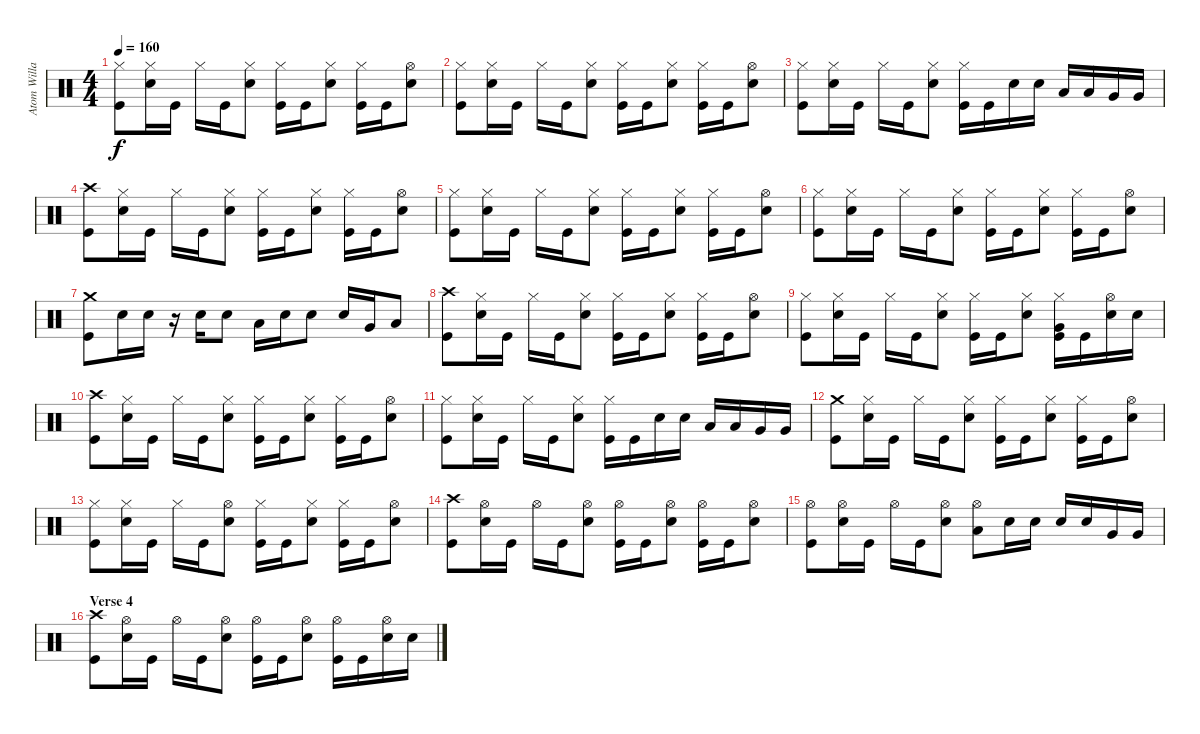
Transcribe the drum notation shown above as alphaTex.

\track ("Atom Willard - Drums" "Atom Willa") {instrument percussion}
\staff {score}
\articulation defaults
\ts (4 4)
\tempo 160
\clef neutral
\ks c
("Hi-Hat (closed)" "Kick (hit)").8{dy f} ("Hi-Hat (closed)" "Electric Snare (hit)").16 "Kick (hit)".16 "Hi-Hat (closed)".16 "Kick (hit)".16 ("Hi-Hat (closed)" "Electric Snare (hit)").8 ("Hi-Hat (closed)" "Kick (hit)").16 "Kick (hit)".16 ("Hi-Hat (closed)" "Electric Snare (hit)").8 ("Hi-Hat (closed)" "Kick (hit)").16 "Kick (hit)".16 ("Hi-Hat (open)" "Electric Snare (hit)").8 |
("Hi-Hat (closed)" "Kick (hit)").8 ("Hi-Hat (closed)" "Electric Snare (hit)").16 "Kick (hit)".16 "Hi-Hat (closed)".16 "Kick (hit)".16 ("Hi-Hat (closed)" "Electric Snare (hit)").8 ("Hi-Hat (closed)" "Kick (hit)").16 "Kick (hit)".16 ("Hi-Hat (closed)" "Electric Snare (hit)").8 ("Hi-Hat (closed)" "Kick (hit)").16 "Kick (hit)".16 ("Hi-Hat (open)" "Electric Snare (hit)").8 |
("Hi-Hat (closed)" "Kick (hit)").8 ("Hi-Hat (closed)" "Electric Snare (hit)").16 "Kick (hit)".16 "Hi-Hat (closed)".16 "Kick (hit)".16 ("Hi-Hat (closed)" "Electric Snare (hit)").8 ("Hi-Hat (closed)" "Kick (hit)").16 "Kick (hit)".16 "Electric Snare (hit)".16 "Electric Snare (hit)".16 "Low Tom (hit)".16 "Low Tom (hit)".16 "Very Low Tom (hit)".16 "Very Low Tom (hit)".16 |
("Crash high (hit)" "Kick (hit)").8 ("Hi-Hat (closed)" "Electric Snare (hit)").16 "Kick (hit)".16 "Hi-Hat (closed)".16 "Kick (hit)".16 ("Hi-Hat (closed)" "Electric Snare (hit)").8 ("Hi-Hat (closed)" "Kick (hit)").16 "Kick (hit)".16 ("Hi-Hat (closed)" "Electric Snare (hit)").8 ("Hi-Hat (closed)" "Kick (hit)").16 "Kick (hit)".16 ("Hi-Hat (open)" "Electric Snare (hit)").8 |
("Hi-Hat (closed)" "Kick (hit)").8 ("Hi-Hat (closed)" "Electric Snare (hit)").16 "Kick (hit)".16 "Hi-Hat (closed)".16 "Kick (hit)".16 ("Hi-Hat (closed)" "Electric Snare (hit)").8 ("Hi-Hat (closed)" "Kick (hit)").16 "Kick (hit)".16 ("Hi-Hat (closed)" "Electric Snare (hit)").8 ("Hi-Hat (closed)" "Kick (hit)").16 "Kick (hit)".16 ("Hi-Hat (open)" "Electric Snare (hit)").8 |
("Hi-Hat (closed)" "Kick (hit)").8 ("Hi-Hat (closed)" "Electric Snare (hit)").16 "Kick (hit)".16 "Hi-Hat (closed)".16 "Kick (hit)".16 ("Hi-Hat (closed)" "Electric Snare (hit)").8 ("Hi-Hat (closed)" "Kick (hit)").16 "Kick (hit)".16 ("Hi-Hat (closed)" "Electric Snare (hit)").8 ("Hi-Hat (closed)" "Kick (hit)").16 "Kick (hit)".16 ("Hi-Hat (open)" "Electric Snare (hit)").8 |
("Crash medium (hit)" "Kick (hit)").8 "Electric Snare (hit)".16 "Electric Snare (hit)".16 r.16 "Electric Snare (hit)".16 "Electric Snare (hit)".8 "Low Tom (hit)".16 "Electric Snare (hit)".16 "Electric Snare (hit)".8 "Electric Snare (hit)".16 "Very Low Tom (hit)".16 "Low Floor Tom (hit)".8 |
("Crash high (hit)" "Kick (hit)").8 ("Hi-Hat (closed)" "Electric Snare (hit)").16 "Kick (hit)".16 "Hi-Hat (closed)".16 "Kick (hit)".16 ("Hi-Hat (closed)" "Electric Snare (hit)").8 ("Hi-Hat (closed)" "Kick (hit)").16 "Kick (hit)".16 ("Hi-Hat (closed)" "Electric Snare (hit)").8 ("Hi-Hat (closed)" "Kick (hit)").16 "Kick (hit)".16 ("Hi-Hat (open)" "Electric Snare (hit)").8 |
("Hi-Hat (closed)" "Kick (hit)").8 ("Hi-Hat (closed)" "Electric Snare (hit)").16 "Kick (hit)".16 "Hi-Hat (closed)".16 "Kick (hit)".16 ("Hi-Hat (closed)" "Electric Snare (hit)").8 ("Hi-Hat (closed)" "Kick (hit)").16 "Kick (hit)".16 ("Hi-Hat (closed)" "Electric Snare (hit)").8 ("Hi-Hat (closed)" "Very Low Tom (hit)" "Kick (hit)").16 "Kick (hit)".16 ("Hi-Hat (open)" "Electric Snare (hit)").16 "Electric Snare (hit)".16 |
("Crash high (hit)" "Kick (hit)").8 ("Hi-Hat (closed)" "Electric Snare (hit)").16 "Kick (hit)".16 "Hi-Hat (closed)".16 "Kick (hit)".16 ("Hi-Hat (closed)" "Electric Snare (hit)").8 ("Hi-Hat (closed)" "Kick (hit)").16 "Kick (hit)".16 ("Hi-Hat (closed)" "Electric Snare (hit)").8 ("Hi-Hat (closed)" "Kick (hit)").16 "Kick (hit)".16 ("Hi-Hat (open)" "Electric Snare (hit)").8 |
("Hi-Hat (closed)" "Kick (hit)").8 ("Hi-Hat (closed)" "Electric Snare (hit)").16 "Kick (hit)".16 "Hi-Hat (closed)".16 "Kick (hit)".16 ("Hi-Hat (closed)" "Electric Snare (hit)").8 ("Hi-Hat (closed)" "Kick (hit)").16 "Kick (hit)".16 "Electric Snare (hit)".16 "Electric Snare (hit)".16 "Low Tom (hit)".16 "Low Tom (hit)".16 "Very Low Tom (hit)".16 "Very Low Tom (hit)".16 |
("Crash medium (hit)" "Kick (hit)").8 ("Hi-Hat (closed)" "Electric Snare (hit)").16 "Kick (hit)".16 "Hi-Hat (closed)".16 "Kick (hit)".16 ("Hi-Hat (closed)" "Electric Snare (hit)").8 ("Hi-Hat (closed)" "Kick (hit)").16 "Kick (hit)".16 ("Hi-Hat (closed)" "Electric Snare (hit)").8 ("Hi-Hat (closed)" "Kick (hit)").16 "Kick (hit)".16 ("Hi-Hat (open)" "Electric Snare (hit)").8 |
("Hi-Hat (closed)" "Kick (hit)").8 ("Hi-Hat (closed)" "Electric Snare (hit)").16 "Kick (hit)".16 "Hi-Hat (closed)".16 "Kick (hit)".16 ("Hi-Hat (open)" "Electric Snare (hit)").8 ("Hi-Hat (closed)" "Kick (hit)").16 "Kick (hit)".16 ("Hi-Hat (closed)" "Electric Snare (hit)").8 ("Hi-Hat (closed)" "Kick (hit)").16 "Kick (hit)".16 ("Hi-Hat (open)" "Electric Snare (hit)").8 |
("Crash high (hit)" "Kick (hit)").8 ("Hi-Hat (open)" "Electric Snare (hit)").16 "Kick (hit)".16 "Hi-Hat (open)".16 "Kick (hit)".16 ("Hi-Hat (open)" "Electric Snare (hit)").8 ("Hi-Hat (open)" "Kick (hit)").16 "Kick (hit)".16 ("Hi-Hat (open)" "Electric Snare (hit)").8 ("Hi-Hat (open)" "Kick (hit)").16 "Kick (hit)".16 ("Hi-Hat (open)" "Electric Snare (hit)").8 |
("Hi-Hat (open)" "Kick (hit)").8 ("Hi-Hat (open)" "Electric Snare (hit)").16 "Kick (hit)".16 "Hi-Hat (open)".16 "Kick (hit)".16 ("Hi-Hat (open)" "Electric Snare (hit)").8 ("Hi-Hat (open)" "Low Floor Tom (hit)").8 "Electric Snare (hit)".16 "Electric Snare (hit)".16 "Electric Snare (hit)".16 "Electric Snare (hit)".16 "Very Low Tom (hit)".16 "Very Low Tom (hit)".16 |
\section ("" "Verse 4")
("Crash high (hit)" "Kick (hit)").8 ("Hi-Hat (open)" "Electric Snare (hit)").16 "Kick (hit)".16 "Hi-Hat (open)".16 "Kick (hit)".16 ("Hi-Hat (open)" "Electric Snare (hit)").8 ("Hi-Hat (open)" "Kick (hit)").16 "Kick (hit)".16 ("Hi-Hat (open)" "Electric Snare (hit)").8 ("Hi-Hat (open)" "Kick (hit)").16 "Kick (hit)".16 ("Hi-Hat (open)" "Electric Snare (hit)").16 "Electric Snare (hit)".16
